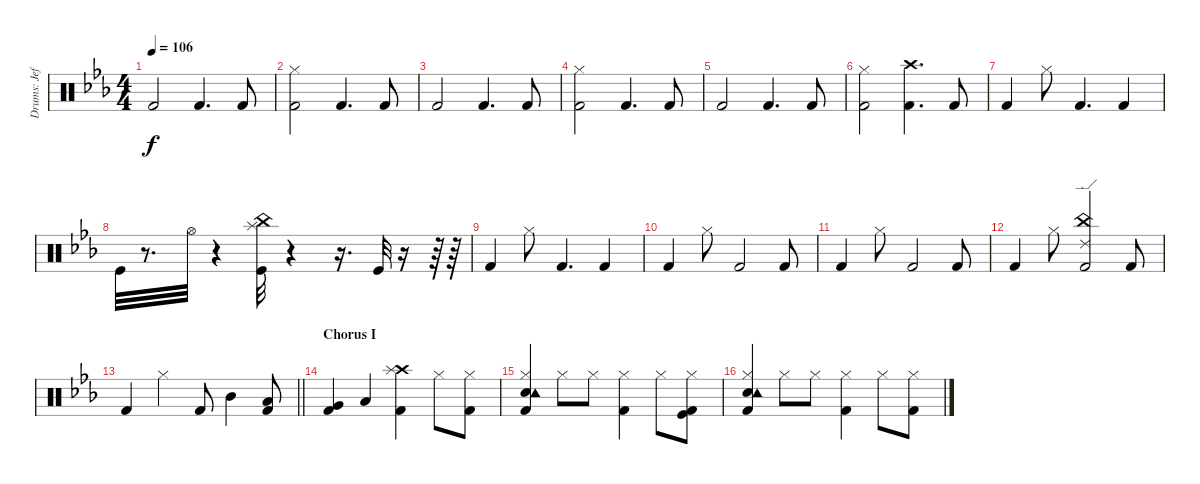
\track ("Drums: Jeff" "Drums: Jef") {instrument percussion}
\staff {score}
\articulation defaults
\ts (4 4)
\tempo 106
\clef neutral
\ks eb "Kick (hit) 2".2{dy f} "Kick (hit) 2".4{d} "Kick (hit) 2".8
|
("Hi-Hat (closed)" "Kick (hit) 2").2 "Kick (hit) 2".4{d} "Kick (hit) 2".8 |
"Kick (hit) 2".2 "Kick (hit) 2".4{d} "Kick (hit) 2".8 |
("Hi-Hat (closed)" "Kick (hit) 2").2 "Kick (hit) 2".4{d} "Kick (hit) 2".8 |
"Kick (hit) 2".2 "Kick (hit) 2".4{d} "Kick (hit) 2".8 |
("Hi-Hat (closed)" "Kick (hit) 2").2 ("Crash high (hit)" "Kick (hit) 2").4{d} "Kick (hit) 2".8 |
"Kick (hit) 2".4 "Hi-Hat (closed)".8 "Kick (hit) 2".4{d} "Kick (hit) 2".4 |
"Kick (hit)".32 r.8{d} "Hi-Hat (open)".32 r.4 ("Kick (hit)" "Splash (hit)" "China (hit)").32 r.4 r.16{d} "Kick (hit)".32 r.16 r.64 r.64 |
"Kick (hit) 2".4 "Hi-Hat (closed)".8 "Kick (hit) 2".4{d} "Kick (hit) 2".4 |
"Kick (hit) 2".4 "Hi-Hat (closed)".8 "Kick (hit) 2".2 "Kick (hit) 2".8 |
"Kick (hit) 2".4 "Hi-Hat (closed)".8 "Kick (hit) 2".2 "Kick (hit) 2".8 |
"Kick (hit) 2".4 "Hi-Hat (closed)".8 ("Ride (edge) 2" "China (hit)" "Kick (hit) 2").2 "Kick (hit) 2".8 |
\barLineRight lightlight "Kick (hit) 2".4 "Hi-Hat (closed)".4 "Kick (hit) 2".8 "Mid Tom (hit)".4
("Low Tom (hit)" "Kick (hit) 2").8 |
\section ("" "Chorus I")
("Very Low Tom (hit)" "Kick (hit) 2").4 "Low Floor Tom (hit)".4 ("Crash high (hit)" "Splash (hit)" "Kick (hit) 2").4 "Hi-Hat (closed)".8 ("Hi-Hat (closed)" "Kick (hit) 2").8 |
("Hi-Hat (closed)" "Snare (hit) 2" "Tambourine (hit)" "Kick (hit) 2").4 "Hi-Hat (closed)".8 "Hi-Hat (closed)".8 ("Hi-Hat (closed)" "Kick (hit) 2").4 "Hi-Hat (closed)".8 ("Kick (hit)" "Hi-Hat (closed)" "Kick (hit) 2").8 |
("Hi-Hat (closed)" "Snare (hit) 2" "Tambourine (hit)" "Kick (hit) 2").4 "Hi-Hat (closed)".8 "Hi-Hat (closed)".8 ("Hi-Hat (closed)" "Kick (hit) 2").4 "Hi-Hat (closed)".8 ("Hi-Hat (closed)" "Kick (hit) 2").8
